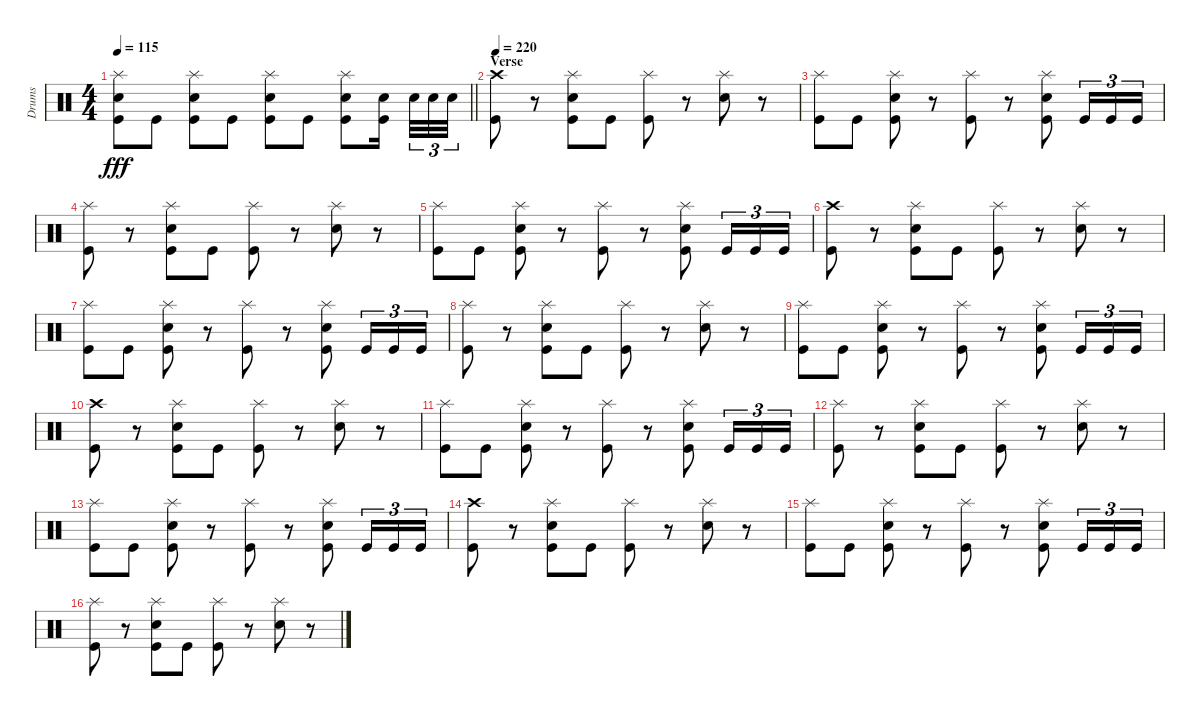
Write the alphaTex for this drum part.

\track ("Drums" "Drums") {instrument percussion}
\staff {score}
\articulation defaults
\ts (4 4)
\tempo 115
\clef neutral
\barLineRight lightlight
\ks c
("Splash (hit)" "Electric Snare (hit)" "Kick (hit)").8{dy fff} "Kick (hit)".8 ("Splash (hit)" "Electric Snare (hit)" "Kick (hit)").8 "Kick (hit)".8 ("Splash (hit)" "Electric Snare (hit)" "Kick (hit)").8 "Kick (hit)".8 ("Splash (hit)" "Electric Snare (hit)" "Kick (hit)").8 ("Electric Snare (hit)" "Kick (hit)").16{beam splitsecondary} "Electric Snare (hit)".32{tu (3 2)} "Electric Snare (hit)".32{tu (3 2)} "Electric Snare (hit)".32{tu (3 2)} |
\section ("" "Verse")
\tempo 220
("Crash high (hit)" "Kick (hit)").8 r.8 ("Splash (hit)" "Electric Snare (hit)" "Kick (hit)").8 "Kick (hit)".8 ("Splash (hit)" "Kick (hit)").8 r.8 ("Splash (hit)" "Electric Snare (hit)").8 r.8 |
("Splash (hit)" "Kick (hit)").8 "Kick (hit)".8 ("Splash (hit)" "Electric Snare (hit)" "Kick (hit)").8 r.8 ("Splash (hit)" "Kick (hit)").8 r.8 ("Splash (hit)" "Electric Snare (hit)" "Kick (hit)").8 "Kick (hit)".16{tu (3 2)} "Kick (hit)".16{tu (3 2)} "Kick (hit)".16{tu (3 2)} |
("Splash (hit)" "Kick (hit)").8 r.8 ("Splash (hit)" "Electric Snare (hit)" "Kick (hit)").8 "Kick (hit)".8 ("Splash (hit)" "Kick (hit)").8 r.8 ("Splash (hit)" "Electric Snare (hit)").8 r.8 |
("Splash (hit)" "Kick (hit)").8 "Kick (hit)".8 ("Splash (hit)" "Electric Snare (hit)" "Kick (hit)").8 r.8 ("Splash (hit)" "Kick (hit)").8 r.8 ("Splash (hit)" "Electric Snare (hit)" "Kick (hit)").8 "Kick (hit)".16{tu (3 2)} "Kick (hit)".16{tu (3 2)} "Kick (hit)".16{tu (3 2)} |
("Crash high (hit)" "Kick (hit)").8 r.8 ("Splash (hit)" "Electric Snare (hit)" "Kick (hit)").8 "Kick (hit)".8 ("Splash (hit)" "Kick (hit)").8 r.8 ("Splash (hit)" "Electric Snare (hit)").8 r.8 |
("Splash (hit)" "Kick (hit)").8 "Kick (hit)".8 ("Splash (hit)" "Electric Snare (hit)" "Kick (hit)").8 r.8 ("Splash (hit)" "Kick (hit)").8 r.8 ("Splash (hit)" "Electric Snare (hit)" "Kick (hit)").8 "Kick (hit)".16{tu (3 2)} "Kick (hit)".16{tu (3 2)} "Kick (hit)".16{tu (3 2)} |
("Splash (hit)" "Kick (hit)").8 r.8 ("Splash (hit)" "Electric Snare (hit)" "Kick (hit)").8 "Kick (hit)".8 ("Splash (hit)" "Kick (hit)").8 r.8 ("Splash (hit)" "Electric Snare (hit)").8 r.8 |
("Splash (hit)" "Kick (hit)").8 "Kick (hit)".8 ("Splash (hit)" "Electric Snare (hit)" "Kick (hit)").8 r.8 ("Splash (hit)" "Kick (hit)").8 r.8 ("Splash (hit)" "Electric Snare (hit)" "Kick (hit)").8 "Kick (hit)".16{tu (3 2)} "Kick (hit)".16{tu (3 2)} "Kick (hit)".16{tu (3 2)} |
("Crash high (hit)" "Kick (hit)").8 r.8 ("Splash (hit)" "Electric Snare (hit)" "Kick (hit)").8 "Kick (hit)".8 ("Splash (hit)" "Kick (hit)").8 r.8 ("Splash (hit)" "Electric Snare (hit)").8 r.8 |
("Splash (hit)" "Kick (hit)").8 "Kick (hit)".8 ("Splash (hit)" "Electric Snare (hit)" "Kick (hit)").8 r.8 ("Splash (hit)" "Kick (hit)").8 r.8 ("Splash (hit)" "Electric Snare (hit)" "Kick (hit)").8 "Kick (hit)".16{tu (3 2)} "Kick (hit)".16{tu (3 2)} "Kick (hit)".16{tu (3 2)} |
("Splash (hit)" "Kick (hit)").8 r.8 ("Splash (hit)" "Electric Snare (hit)" "Kick (hit)").8 "Kick (hit)".8 ("Splash (hit)" "Kick (hit)").8 r.8 ("Splash (hit)" "Electric Snare (hit)").8 r.8 |
("Splash (hit)" "Kick (hit)").8 "Kick (hit)".8 ("Splash (hit)" "Electric Snare (hit)" "Kick (hit)").8 r.8 ("Splash (hit)" "Kick (hit)").8 r.8 ("Splash (hit)" "Electric Snare (hit)" "Kick (hit)").8 "Kick (hit)".16{tu (3 2)} "Kick (hit)".16{tu (3 2)} "Kick (hit)".16{tu (3 2)} |
("Crash high (hit)" "Kick (hit)").8 r.8 ("Splash (hit)" "Electric Snare (hit)" "Kick (hit)").8 "Kick (hit)".8 ("Splash (hit)" "Kick (hit)").8 r.8 ("Splash (hit)" "Electric Snare (hit)").8 r.8 |
("Splash (hit)" "Kick (hit)").8 "Kick (hit)".8 ("Splash (hit)" "Electric Snare (hit)" "Kick (hit)").8 r.8 ("Splash (hit)" "Kick (hit)").8 r.8 ("Splash (hit)" "Electric Snare (hit)" "Kick (hit)").8 "Kick (hit)".16{tu (3 2)} "Kick (hit)".16{tu (3 2)} "Kick (hit)".16{tu (3 2)} |
("Splash (hit)" "Kick (hit)").8 r.8 ("Splash (hit)" "Electric Snare (hit)" "Kick (hit)").8 "Kick (hit)".8 ("Splash (hit)" "Kick (hit)").8 r.8 ("Splash (hit)" "Electric Snare (hit)").8 r.8
